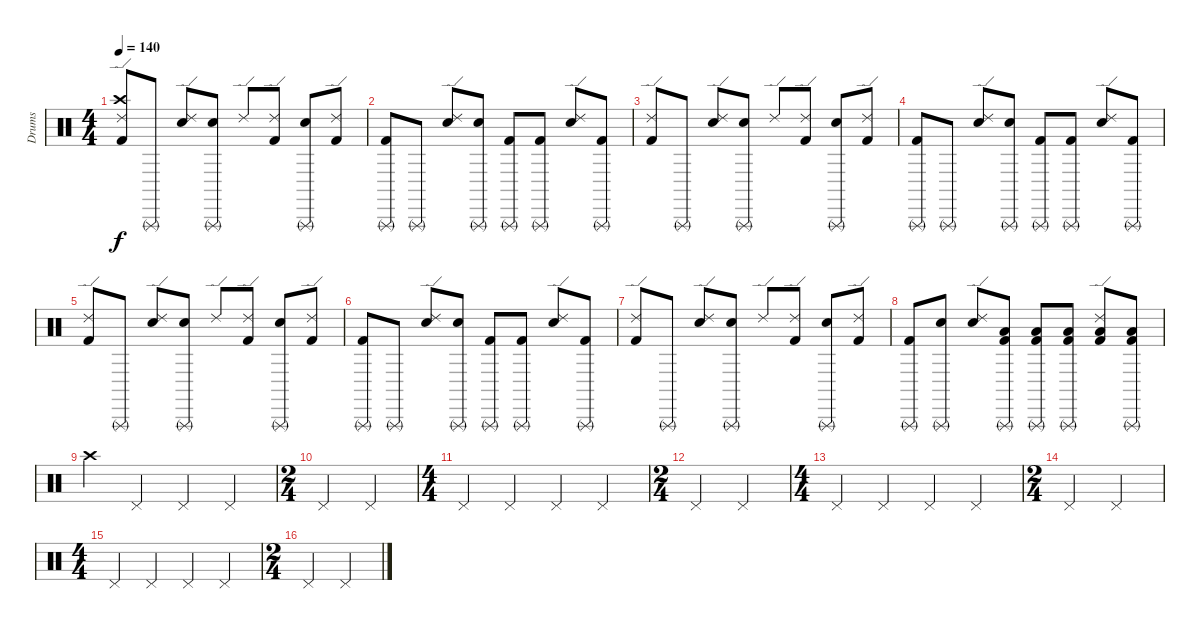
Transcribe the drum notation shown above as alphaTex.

\track ("Drums" "Drums") {instrument percussion}
\staff {score}
\articulation defaults
\ts (4 4)
\tempo 140
\clef neutral
\ks c
("Ride (edge) 2" "Crash high (hit)" "Kick (hit) 2").8{dy f} "Triangle (rnute)".8 ("Ride (edge) 2" "Electric Snare (hit)").8 ("Triangle (rnute)" "Electric Snare (hit)").8 "Ride (edge) 2".8 ("Ride (edge) 2" "Kick (hit) 2").8 ("Triangle (rnute)" "Electric Snare (hit)").8 ("Ride (edge) 2" "Kick (hit) 2").8 |
("Triangle (rnute)" "Kick (hit) 2").8 "Triangle (rnute)".8 ("Ride (edge) 2" "Electric Snare (hit)").8 ("Triangle (rnute)" "Electric Snare (hit)").8 ("Triangle (rnute)" "Kick (hit) 2").8 ("Triangle (rnute)" "Kick (hit) 2").8 ("Ride (edge) 2" "Electric Snare (hit)").8 ("Triangle (rnute)" "Kick (hit) 2").8 |
("Ride (edge) 2" "Kick (hit) 2").8 "Triangle (rnute)".8 ("Ride (edge) 2" "Electric Snare (hit)").8 ("Triangle (rnute)" "Electric Snare (hit)").8 "Ride (edge) 2".8 ("Ride (edge) 2" "Kick (hit) 2").8 ("Triangle (rnute)" "Electric Snare (hit)").8 ("Ride (edge) 2" "Kick (hit) 2").8 |
("Triangle (rnute)" "Kick (hit) 2").8 "Triangle (rnute)".8 ("Ride (edge) 2" "Electric Snare (hit)").8 ("Triangle (rnute)" "Electric Snare (hit)").8 ("Triangle (rnute)" "Kick (hit) 2").8 ("Triangle (rnute)" "Kick (hit) 2").8 ("Ride (edge) 2" "Electric Snare (hit)").8 ("Triangle (rnute)" "Kick (hit) 2").8 |
("Ride (edge) 2" "Kick (hit) 2").8 "Triangle (rnute)".8 ("Ride (edge) 2" "Electric Snare (hit)").8 ("Triangle (rnute)" "Electric Snare (hit)").8 "Ride (edge) 2".8 ("Ride (edge) 2" "Kick (hit) 2").8 ("Triangle (rnute)" "Electric Snare (hit)").8 ("Ride (edge) 2" "Kick (hit) 2").8 |
("Triangle (rnute)" "Kick (hit) 2").8 "Triangle (rnute)".8 ("Ride (edge) 2" "Electric Snare (hit)").8 ("Triangle (rnute)" "Electric Snare (hit)").8 ("Triangle (rnute)" "Kick (hit) 2").8 ("Triangle (rnute)" "Kick (hit) 2").8 ("Ride (edge) 2" "Electric Snare (hit)").8 ("Triangle (rnute)" "Kick (hit) 2").8 |
("Ride (edge) 2" "Kick (hit) 2").8 "Triangle (rnute)".8 ("Ride (edge) 2" "Electric Snare (hit)").8 ("Triangle (rnute)" "Electric Snare (hit)").8 "Ride (edge) 2".8 ("Ride (edge) 2" "Kick (hit) 2").8 ("Triangle (rnute)" "Electric Snare (hit)").8 ("Ride (edge) 2" "Kick (hit) 2").8 |
("Triangle (rnute)" "Kick (hit) 2").8 ("Triangle (rnute)" "Electric Snare (hit)").8 ("Ride (edge) 2" "Electric Snare (hit)").8 ("Triangle (rnute)" "Kick (hit) 2" "Low Tom (hit)").8 ("Triangle (rnute)" "Kick (hit) 2" "Low Tom (hit)").8 ("Triangle (rnute)" "Kick (hit) 2" "Low Tom (hit)").8 ("Ride (edge) 2" "Kick (hit) 2" "Low Tom (hit)").8 ("Triangle (rnute)" "Kick (hit) 2" "Low Tom (hit)").8 |
"Crash high (hit)".4 "Pedal Hi-Hat (hit)".4 "Pedal Hi-Hat (hit)".4 "Pedal Hi-Hat (hit)".4 |
\ts (2 4)
"Pedal Hi-Hat (hit)".4 "Pedal Hi-Hat (hit)".4 |
\ts (4 4)
"Pedal Hi-Hat (hit)".4 "Pedal Hi-Hat (hit)".4 "Pedal Hi-Hat (hit)".4 "Pedal Hi-Hat (hit)".4 |
\ts (2 4)
"Pedal Hi-Hat (hit)".4 "Pedal Hi-Hat (hit)".4 |
\ts (4 4)
"Pedal Hi-Hat (hit)".4 "Pedal Hi-Hat (hit)".4 "Pedal Hi-Hat (hit)".4 "Pedal Hi-Hat (hit)".4 |
\ts (2 4)
"Pedal Hi-Hat (hit)".4 "Pedal Hi-Hat (hit)".4 |
\ts (4 4)
"Pedal Hi-Hat (hit)".4 "Pedal Hi-Hat (hit)".4 "Pedal Hi-Hat (hit)".4 "Pedal Hi-Hat (hit)".4 |
\ts (2 4)
"Pedal Hi-Hat (hit)".4 "Pedal Hi-Hat (hit)".4
